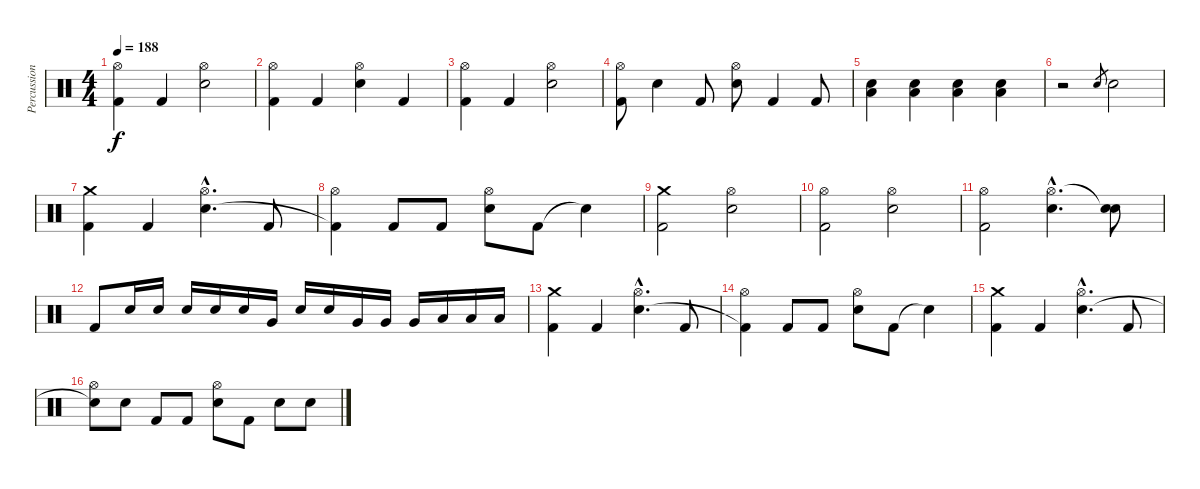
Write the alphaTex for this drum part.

\track ("Percussion" "Percussion") {instrument percussion}
\staff {score}
\articulation defaults
\ts (4 4)
\tempo 188
\clef neutral
\ks c
("Hi-Hat (open)" "Kick (hit) 2").4{dy f} "Kick (hit) 2".4 ("Hi-Hat (open)" "Electric Snare (hit)").2 |
("Hi-Hat (open)" "Kick (hit) 2").4 "Kick (hit) 2".4 ("Hi-Hat (open)" "Electric Snare (hit)").4 "Kick (hit) 2".4 |
("Hi-Hat (open)" "Kick (hit) 2").4 "Kick (hit) 2".4 ("Hi-Hat (open)" "Electric Snare (hit)").2 |
("Hi-Hat (open)" "Kick (hit) 2").8 "Electric Snare (hit)".4 "Kick (hit) 2".8 ("Hi-Hat (open)" "Electric Snare (hit)").8 "Kick (hit) 2".4 "Kick (hit) 2".8 |
("Electric Snare (hit)" "Low Floor Tom (hit)").4 ("Electric Snare (hit)" "Low Floor Tom (hit)").4 ("Electric Snare (hit)" "Low Floor Tom (hit)").4 ("Electric Snare (hit)" "Low Floor Tom (hit)").4 |
r.2 "Electric Snare (hit)".8{gr} "Electric Snare (hit)".2 |
("Crash medium (hit)" "Kick (hit) 2").4 "Kick (hit) 2".4 ("Hi-Hat (open)"{hac} "Electric Snare (hit)"{hac}).4{d} "Kick (hit) 2".8 |
("Hi-Hat (open)" "Kick (hit) 2"{t}).4 "Kick (hit) 2".8 "Kick (hit) 2".8 ("Hi-Hat (open)" "Electric Snare (hit)").8 "Kick (hit) 2".8 "Snare (hit)"{t}.4 |
("Crash medium (hit)" "Kick (hit) 2").2 ("Hi-Hat (open)" "Electric Snare (hit)").2 |
("Hi-Hat (open)" "Kick (hit) 2").2 ("Hi-Hat (open)" "Electric Snare (hit)").2 |
("Hi-Hat (open)" "Kick (hit) 2").2 ("Hi-Hat (open)"{hac} "Electric Snare (hit)"{hac}).4{d} ("Snare (hit)"{t} "Electric Snare (hit)").8 |
"Kick (hit) 2".8 "Electric Snare (hit)".16 "Electric Snare (hit)".16 "Electric Snare (hit)".16 "Electric Snare (hit)".16 "Electric Snare (hit)".16 "Very Low Tom (hit)".16 "Electric Snare (hit)".16 "Electric Snare (hit)".16 "Very Low Tom (hit)".16 "Very Low Tom (hit)".16 "Very Low Tom (hit)".16 "Low Floor Tom (hit)".16 "Low Floor Tom (hit)".16 "Low Floor Tom (hit)".16 |
("Crash medium (hit)" "Kick (hit) 2").4 "Kick (hit) 2".4 ("Hi-Hat (open)"{hac} "Electric Snare (hit)"{hac}).4{d} "Kick (hit) 2".8 |
("Hi-Hat (open)" "Kick (hit) 2"{t}).4 "Kick (hit) 2".8 "Kick (hit) 2".8 ("Hi-Hat (open)" "Electric Snare (hit)").8 "Kick (hit) 2".8 "Snare (hit)"{t}.4 |
("Crash medium (hit)" "Kick (hit) 2").4 "Kick (hit) 2".4 ("Hi-Hat (open)"{hac} "Electric Snare (hit)"{hac}).4{d} "Kick (hit) 2".8 |
("Hi-Hat (open)" "Snare (hit)"{t}).8 "Electric Snare (hit)".8 "Kick (hit) 2".8 "Kick (hit) 2".8 ("Hi-Hat (open)" "Electric Snare (hit)").8 "Kick (hit) 2".8 "Electric Snare (hit)".8 "Electric Snare (hit)".8
